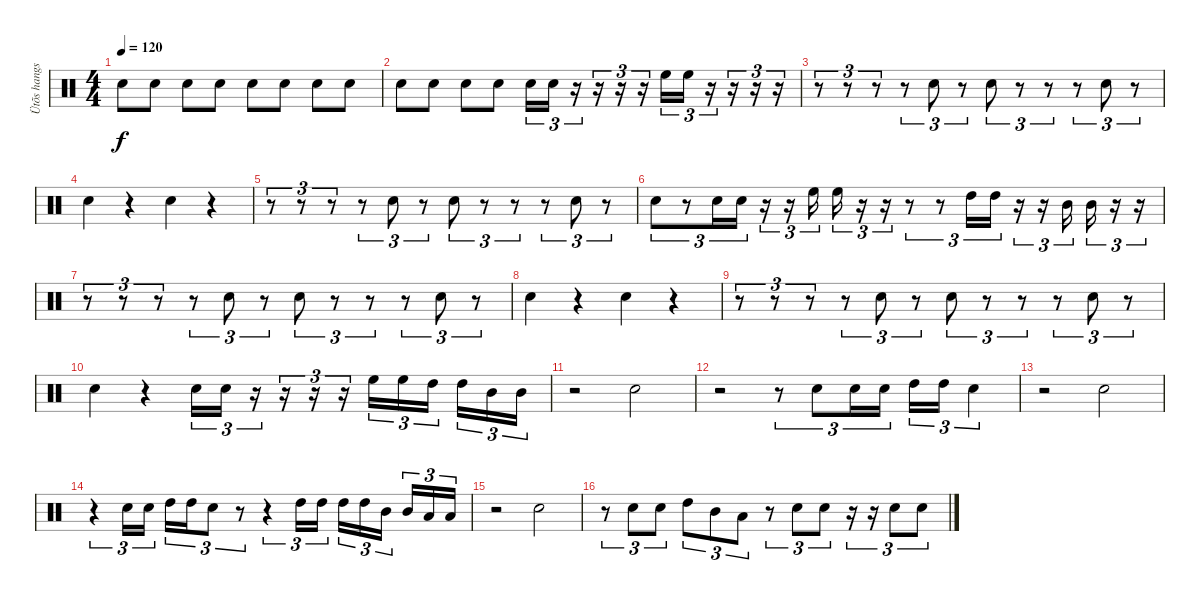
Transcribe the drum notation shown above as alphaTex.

\track ("Ütõs hangszer" "Ütõs hangs") {instrument percussion}
\staff {score}
\articulation defaults
\ts (4 4)
\tempo 120
\clef neutral
\ks c "Electric Snare (hit)".8{dy f} "Electric Snare (hit)".8 "Electric Snare (hit)".8 "Electric Snare (hit)".8 "Electric Snare (hit)".8 "Electric Snare (hit)".8 "Electric Snare (hit)".8 "Electric Snare (hit)".8
|
"Electric Snare (hit)".8 "Electric Snare (hit)".8 "Electric Snare (hit)".8 "Electric Snare (hit)".8 "Electric Snare (hit)".16{tu (3 2)} "Electric Snare (hit)".16{tu (3 2)} r.16{tu (3 2)} r.16{tu (3 2)} r.16{tu (3 2)} r.16{tu (3 2)} "High Floor Tom (hit)".16{tu (3 2)} "High Floor Tom (hit)".16{tu (3 2)} r.16{tu (3 2)} r.16{tu (3 2)} r.16{tu (3 2)} r.16{tu (3 2)} |
r.8{tu (3 2)} r.8{tu (3 2)} r.8{tu (3 2)} r.8{tu (3 2)} "Electric Snare (hit)".8{tu (3 2)} r.8{tu (3 2)} "Electric Snare (hit)".8{tu (3 2)} r.8{tu (3 2)} r.8{tu (3 2)} r.8{tu (3 2)} "Electric Snare (hit)".8{tu (3 2)} r.8{tu (3 2)} |
"Electric Snare (hit)".4 r.4 "Electric Snare (hit)".4 r.4 |
r.8{tu (3 2)} r.8{tu (3 2)} r.8{tu (3 2)} r.8{tu (3 2)} "Electric Snare (hit)".8{tu (3 2)} r.8{tu (3 2)} "Electric Snare (hit)".8{tu (3 2)} r.8{tu (3 2)} r.8{tu (3 2)} r.8{tu (3 2)} "Electric Snare (hit)".8{tu (3 2)} r.8{tu (3 2)} |
"Electric Snare (hit)".8{tu (3 2)} r.8{tu (3 2)} "Electric Snare (hit)".16{tu (3 2)} "Electric Snare (hit)".16{tu (3 2)} r.16{tu (3 2)} r.16{tu (3 2)} "High Floor Tom (hit)".16{tu (3 2)} "High Floor Tom (hit)".16{tu (3 2)} r.16{tu (3 2)} r.16{tu (3 2)} r.8{tu (3 2)} r.8{tu (3 2)} "High Tom (hit)".16{tu (3 2)} "High Tom (hit)".16{tu (3 2)} r.16{tu (3 2)} r.16{tu (3 2)} "Mid Tom (hit)".16{tu (3 2)} "Mid Tom (hit)".16{tu (3 2)} r.16{tu (3 2)} r.16{tu (3 2)} |
r.8{tu (3 2)} r.8{tu (3 2)} r.8{tu (3 2)} r.8{tu (3 2)} "Electric Snare (hit)".8{tu (3 2)} r.8{tu (3 2)} "Electric Snare (hit)".8{tu (3 2)} r.8{tu (3 2)} r.8{tu (3 2)} r.8{tu (3 2)} "Electric Snare (hit)".8{tu (3 2)} r.8{tu (3 2)} |
"Electric Snare (hit)".4 r.4 "Electric Snare (hit)".4 r.4 |
r.8{tu (3 2)} r.8{tu (3 2)} r.8{tu (3 2)} r.8{tu (3 2)} "Electric Snare (hit)".8{tu (3 2)} r.8{tu (3 2)} "Electric Snare (hit)".8{tu (3 2)} r.8{tu (3 2)} r.8{tu (3 2)} r.8{tu (3 2)} "Electric Snare (hit)".8{tu (3 2)} r.8{tu (3 2)} |
"Electric Snare (hit)".4 r.4 "Electric Snare (hit)".16{tu (3 2)} "Electric Snare (hit)".16{tu (3 2)} r.16{tu (3 2)} r.16{tu (3 2)} r.16{tu (3 2)} r.16{tu (3 2)} "High Floor Tom (hit)".16{tu (3 2)} "High Floor Tom (hit)".16{tu (3 2)} "High Tom (hit)".16{tu (3 2)} "High Tom (hit)".16{tu (3 2)} "Mid Tom (hit)".16{tu (3 2)} "Mid Tom (hit)".16{tu (3 2)} |
r.2 "Electric Snare (hit)".2 |
r.2 r.8{tu (3 2)} "Electric Snare (hit)".8{tu (3 2)} "Electric Snare (hit)".16{tu (3 2)} "Electric Snare (hit)".16{tu (3 2)} "High Tom (hit)".16{tu (3 2)} "High Tom (hit)".16{tu (3 2)} "Electric Snare (hit)".4{tu (3 2)} |
r.2 "Electric Snare (hit)".2 |
r.4{tu (3 2)} "Electric Snare (hit)".16{tu (3 2)} "Electric Snare (hit)".16{tu (3 2)} "High Tom (hit)".16{tu (3 2)} "High Tom (hit)".16{tu (3 2)} "Electric Snare (hit)".8{tu (3 2)} r.8{tu (3 2)} r.4{tu (3 2)} "High Tom (hit)".16{tu (3 2)} "High Tom (hit)".16{tu (3 2)} "High Tom (hit)".16{tu (3 2)} "High Tom (hit)".16{tu (3 2)} "Mid Tom (hit)".16{tu (3 2)} "Mid Tom (hit)".16{tu (3 2)} "Low Tom (hit)".16{tu (3 2)} "Low Tom (hit)".16{tu (3 2)} |
r.2 "Electric Snare (hit)".2 |
r.8{tu (3 2)} "Electric Snare (hit)".8{tu (3 2)} "Electric Snare (hit)".8{tu (3 2)} "High Tom (hit)".8{tu (3 2)} "Mid Tom (hit)".8{tu (3 2)} "Low Tom (hit)".8{tu (3 2)} r.8{tu (3 2)} "Electric Snare (hit)".8{tu (3 2)} "Electric Snare (hit)".8{tu (3 2)} r.16{tu (3 2)} r.16{tu (3 2)} "Electric Snare (hit)".8{tu (3 2)} "Electric Snare (hit)".8{tu (3 2)}
